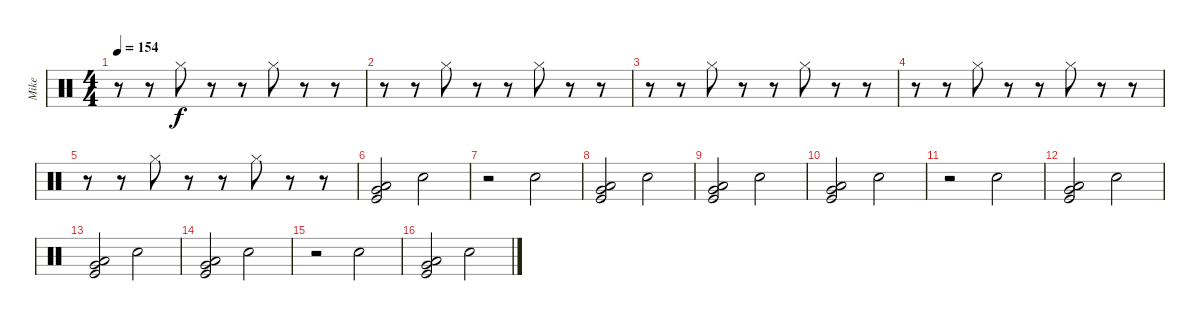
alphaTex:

\track ("Mike " "Mike ") {instrument percussion}
\staff {score}
\articulation defaults
\ts (4 4)
\tempo 154
\clef neutral
\ks c
r.8{dy f} r.8 "Hi-Hat (closed)".8 r.8 r.8 "Hi-Hat (closed)".8 r.8 r.8 |
r.8 r.8 "Hi-Hat (closed)".8 r.8 r.8 "Hi-Hat (closed)".8 r.8 r.8 |
r.8 r.8 "Hi-Hat (closed)".8 r.8 r.8 "Hi-Hat (closed)".8 r.8 r.8 |
r.8 r.8 "Hi-Hat (closed)".8 r.8 r.8 "Hi-Hat (closed)".8 r.8 r.8 |
r.8 r.8 "Hi-Hat (closed)".8 r.8 r.8 "Hi-Hat (closed)".8 r.8 r.8 |
("Low Floor Tom (hit)" "Very Low Tom (hit)" "Kick (hit)").2 "Electric Snare (hit)".2 |
r.2 "Electric Snare (hit)".2 |
("Low Floor Tom (hit)" "Very Low Tom (hit)" "Kick (hit)").2 "Electric Snare (hit)".2 |
("Low Floor Tom (hit)" "Very Low Tom (hit)" "Kick (hit)").2 "Electric Snare (hit)".2 |
("Low Floor Tom (hit)" "Very Low Tom (hit)" "Kick (hit)").2 "Electric Snare (hit)".2 |
r.2 "Electric Snare (hit)".2 |
("Low Floor Tom (hit)" "Very Low Tom (hit)" "Kick (hit)").2 "Electric Snare (hit)".2 |
("Low Floor Tom (hit)" "Very Low Tom (hit)" "Kick (hit)").2 "Electric Snare (hit)".2 |
("Low Floor Tom (hit)" "Very Low Tom (hit)" "Kick (hit)").2 "Electric Snare (hit)".2 |
r.2 "Electric Snare (hit)".2 |
("Low Floor Tom (hit)" "Very Low Tom (hit)" "Kick (hit)").2 "Electric Snare (hit)".2
